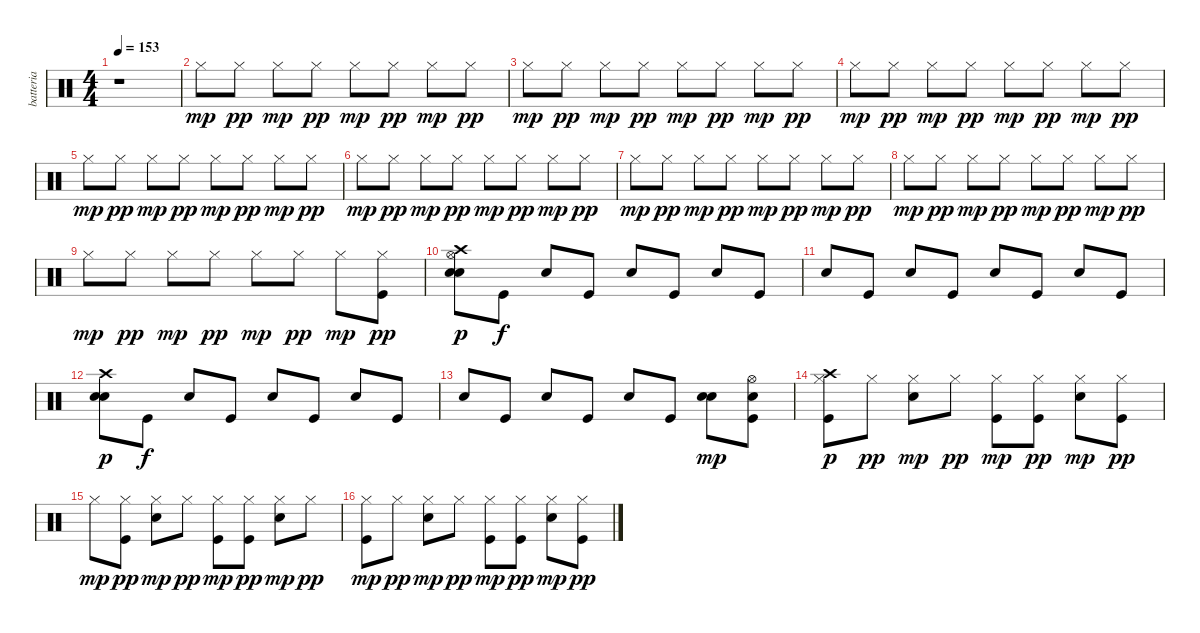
\track ("batteria" "batteria") {instrument percussion}
\staff {score}
\articulation defaults
\ts (4 4)
\tempo 153
\clef neutral
\ks c
r.1{dy mp} |
"Hi-Hat (closed)".8 "Hi-Hat (closed)".8{dy pp} "Hi-Hat (closed)".8{dy mp} "Hi-Hat (closed)".8{dy pp} "Hi-Hat (closed)".8{dy mp} "Hi-Hat (closed)".8{dy pp} "Hi-Hat (closed)".8{dy mp} "Hi-Hat (closed)".8{dy pp} |
"Hi-Hat (closed)".8{dy mp} "Hi-Hat (closed)".8{dy pp} "Hi-Hat (closed)".8{dy mp} "Hi-Hat (closed)".8{dy pp} "Hi-Hat (closed)".8{dy mp} "Hi-Hat (closed)".8{dy pp} "Hi-Hat (closed)".8{dy mp} "Hi-Hat (closed)".8{dy pp} |
"Hi-Hat (closed)".8{dy mp} "Hi-Hat (closed)".8{dy pp} "Hi-Hat (closed)".8{dy mp} "Hi-Hat (closed)".8{dy pp} "Hi-Hat (closed)".8{dy mp} "Hi-Hat (closed)".8{dy pp} "Hi-Hat (closed)".8{dy mp} "Hi-Hat (closed)".8{dy pp} |
"Hi-Hat (closed)".8{dy mp} "Hi-Hat (closed)".8{dy pp} "Hi-Hat (closed)".8{dy mp} "Hi-Hat (closed)".8{dy pp} "Hi-Hat (closed)".8{dy mp} "Hi-Hat (closed)".8{dy pp} "Hi-Hat (closed)".8{dy mp} "Hi-Hat (closed)".8{dy pp} |
"Hi-Hat (closed)".8{dy mp} "Hi-Hat (closed)".8{dy pp} "Hi-Hat (closed)".8{dy mp} "Hi-Hat (closed)".8{dy pp} "Hi-Hat (closed)".8{dy mp} "Hi-Hat (closed)".8{dy pp} "Hi-Hat (closed)".8{dy mp} "Hi-Hat (closed)".8{dy pp} |
"Hi-Hat (closed)".8{dy mp} "Hi-Hat (closed)".8{dy pp} "Hi-Hat (closed)".8{dy mp} "Hi-Hat (closed)".8{dy pp} "Hi-Hat (closed)".8{dy mp} "Hi-Hat (closed)".8{dy pp} "Hi-Hat (closed)".8{dy mp} "Hi-Hat (closed)".8{dy pp} |
"Hi-Hat (closed)".8{dy mp} "Hi-Hat (closed)".8{dy pp} "Hi-Hat (closed)".8{dy mp} "Hi-Hat (closed)".8{dy pp} "Hi-Hat (closed)".8{dy mp} "Hi-Hat (closed)".8{dy pp} "Hi-Hat (closed)".8{dy mp} "Hi-Hat (closed)".8{dy pp} |
"Hi-Hat (closed)".8{dy mp} "Hi-Hat (closed)".8{dy pp} "Hi-Hat (closed)".8{dy mp} "Hi-Hat (closed)".8{dy pp} "Hi-Hat (closed)".8{dy mp} "Hi-Hat (closed)".8{dy pp} "Hi-Hat (closed)".8{dy mp} ("Kick (hit)" "Hi-Hat (closed)").8{dy pp} |
("Electric Snare (hit)" "Hi-Hat (open)" "Crash high (hit)" "Electric Snare (hit)").8{dy p} "Kick (hit)".8{dy f} "Electric Snare (hit)".8 "Kick (hit)".8 "Electric Snare (hit)".8 "Kick (hit)".8 "Electric Snare (hit)".8 "Kick (hit)".8 |
"Electric Snare (hit)".8 "Kick (hit)".8 "Electric Snare (hit)".8 "Kick (hit)".8 "Electric Snare (hit)".8 "Kick (hit)".8 "Electric Snare (hit)".8 "Kick (hit)".8 |
("Electric Snare (hit)" "Crash high (hit)" "Electric Snare (hit)").8{dy p} "Kick (hit)".8{dy f} "Electric Snare (hit)".8 "Kick (hit)".8 "Electric Snare (hit)".8 "Kick (hit)".8 "Electric Snare (hit)".8 "Kick (hit)".8 |
"Electric Snare (hit)".8 "Kick (hit)".8 "Electric Snare (hit)".8 "Kick (hit)".8 "Electric Snare (hit)".8 "Kick (hit)".8 ("Electric Snare (hit)" "Electric Snare (hit)").8{dy mp} ("Electric Snare (hit)" "Kick (hit)" "Hi-Hat (open)").8 |
("Kick (hit)" "Hi-Hat (closed)" "Crash high (hit)").8{dy p} "Hi-Hat (closed)".8{dy pp} ("Hi-Hat (closed)" "Electric Snare (hit)").8{dy mp} "Hi-Hat (closed)".8{dy pp} ("Kick (hit)" "Hi-Hat (closed)").8{dy mp} ("Kick (hit)" "Hi-Hat (closed)").8{dy pp} ("Hi-Hat (closed)" "Electric Snare (hit)").8{dy mp} ("Kick (hit)" "Hi-Hat (closed)").8{dy pp} |
"Hi-Hat (closed)".8{dy mp} ("Kick (hit)" "Hi-Hat (closed)").8{dy pp} ("Hi-Hat (closed)" "Electric Snare (hit)").8{dy mp} "Hi-Hat (closed)".8{dy pp} ("Kick (hit)" "Hi-Hat (closed)").8{dy mp} ("Kick (hit)" "Hi-Hat (closed)").8{dy pp} ("Hi-Hat (closed)" "Electric Snare (hit)").8{dy mp} "Hi-Hat (closed)".8{dy pp} |
("Kick (hit)" "Hi-Hat (closed)").8{dy mp} "Hi-Hat (closed)".8{dy pp} ("Hi-Hat (closed)" "Electric Snare (hit)").8{dy mp} "Hi-Hat (closed)".8{dy pp} ("Kick (hit)" "Hi-Hat (closed)").8{dy mp} ("Kick (hit)" "Hi-Hat (closed)").8{dy pp} ("Hi-Hat (closed)" "Electric Snare (hit)").8{dy mp} ("Kick (hit)" "Hi-Hat (closed)").8{dy pp}
